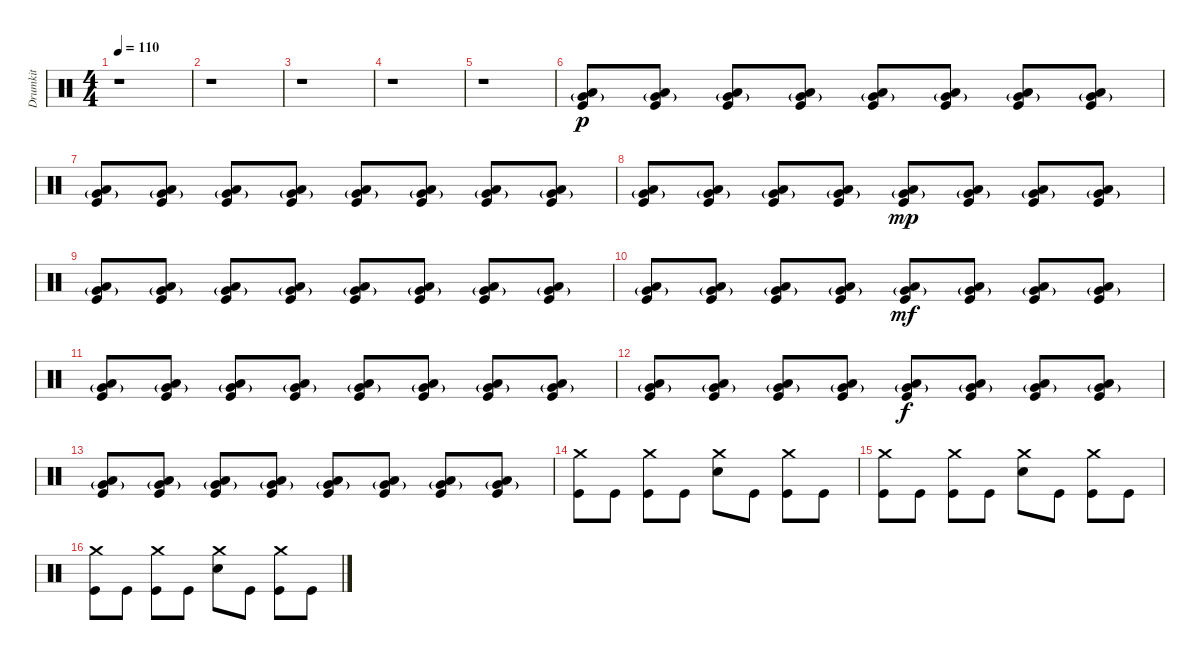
\track ("Drumkit" "Drumkit") {instrument percussion}
\staff {score}
\articulation defaults
\ts (4 4)
\tempo 110
\clef neutral
\ks c
r.1{dy f} |
r.1 |
r.1 |
r.1 |
r.1 |
("Low Floor Tom (hit)" "Very Low Tom (hit)"{g} "Kick (hit)").8{dy p} ("Low Floor Tom (hit)" "Very Low Tom (hit)"{g} "Kick (hit)").8 ("Low Floor Tom (hit)" "Very Low Tom (hit)"{g} "Kick (hit)").8 ("Low Floor Tom (hit)" "Very Low Tom (hit)"{g} "Kick (hit)").8 ("Low Floor Tom (hit)" "Very Low Tom (hit)"{g} "Kick (hit)").8 ("Low Floor Tom (hit)" "Very Low Tom (hit)"{g} "Kick (hit)").8 ("Low Floor Tom (hit)" "Very Low Tom (hit)"{g} "Kick (hit)").8 ("Low Floor Tom (hit)" "Very Low Tom (hit)"{g} "Kick (hit)").8 |
("Low Floor Tom (hit)" "Very Low Tom (hit)"{g} "Kick (hit)").8 ("Low Floor Tom (hit)" "Very Low Tom (hit)"{g} "Kick (hit)").8 ("Low Floor Tom (hit)" "Very Low Tom (hit)"{g} "Kick (hit)").8 ("Low Floor Tom (hit)" "Very Low Tom (hit)"{g} "Kick (hit)").8 ("Low Floor Tom (hit)" "Very Low Tom (hit)"{g} "Kick (hit)").8 ("Low Floor Tom (hit)" "Very Low Tom (hit)"{g} "Kick (hit)").8 ("Low Floor Tom (hit)" "Very Low Tom (hit)"{g} "Kick (hit)").8 ("Low Floor Tom (hit)" "Very Low Tom (hit)"{g} "Kick (hit)").8 |
("Low Floor Tom (hit)" "Very Low Tom (hit)"{g} "Kick (hit)").8 ("Low Floor Tom (hit)" "Very Low Tom (hit)"{g} "Kick (hit)").8 ("Low Floor Tom (hit)" "Very Low Tom (hit)"{g} "Kick (hit)").8 ("Low Floor Tom (hit)" "Very Low Tom (hit)"{g} "Kick (hit)").8 ("Low Floor Tom (hit)" "Very Low Tom (hit)"{g} "Kick (hit)").8{dy mp} ("Low Floor Tom (hit)" "Very Low Tom (hit)"{g} "Kick (hit)").8 ("Low Floor Tom (hit)" "Very Low Tom (hit)"{g} "Kick (hit)").8 ("Low Floor Tom (hit)" "Very Low Tom (hit)"{g} "Kick (hit)").8 |
("Low Floor Tom (hit)" "Very Low Tom (hit)"{g} "Kick (hit)").8 ("Low Floor Tom (hit)" "Very Low Tom (hit)"{g} "Kick (hit)").8 ("Low Floor Tom (hit)" "Very Low Tom (hit)"{g} "Kick (hit)").8 ("Low Floor Tom (hit)" "Very Low Tom (hit)"{g} "Kick (hit)").8 ("Low Floor Tom (hit)" "Very Low Tom (hit)"{g} "Kick (hit)").8 ("Low Floor Tom (hit)" "Very Low Tom (hit)"{g} "Kick (hit)").8 ("Low Floor Tom (hit)" "Very Low Tom (hit)"{g} "Kick (hit)").8 ("Low Floor Tom (hit)" "Very Low Tom (hit)"{g} "Kick (hit)").8 |
("Low Floor Tom (hit)" "Very Low Tom (hit)"{g} "Kick (hit)").8 ("Low Floor Tom (hit)" "Very Low Tom (hit)"{g} "Kick (hit)").8 ("Low Floor Tom (hit)" "Very Low Tom (hit)"{g} "Kick (hit)").8 ("Low Floor Tom (hit)" "Very Low Tom (hit)"{g} "Kick (hit)").8 ("Low Floor Tom (hit)" "Very Low Tom (hit)"{g} "Kick (hit)").8{dy mf} ("Low Floor Tom (hit)" "Very Low Tom (hit)"{g} "Kick (hit)").8 ("Low Floor Tom (hit)" "Very Low Tom (hit)"{g} "Kick (hit)").8 ("Low Floor Tom (hit)" "Very Low Tom (hit)"{g} "Kick (hit)").8 |
("Low Floor Tom (hit)" "Very Low Tom (hit)"{g} "Kick (hit)").8 ("Low Floor Tom (hit)" "Very Low Tom (hit)"{g} "Kick (hit)").8 ("Low Floor Tom (hit)" "Very Low Tom (hit)"{g} "Kick (hit)").8 ("Low Floor Tom (hit)" "Very Low Tom (hit)"{g} "Kick (hit)").8 ("Low Floor Tom (hit)" "Very Low Tom (hit)"{g} "Kick (hit)").8 ("Low Floor Tom (hit)" "Very Low Tom (hit)"{g} "Kick (hit)").8 ("Low Floor Tom (hit)" "Very Low Tom (hit)"{g} "Kick (hit)").8 ("Low Floor Tom (hit)" "Very Low Tom (hit)"{g} "Kick (hit)").8 |
("Low Floor Tom (hit)" "Very Low Tom (hit)"{g} "Kick (hit)").8 ("Low Floor Tom (hit)" "Very Low Tom (hit)"{g} "Kick (hit)").8 ("Low Floor Tom (hit)" "Very Low Tom (hit)"{g} "Kick (hit)").8 ("Low Floor Tom (hit)" "Very Low Tom (hit)"{g} "Kick (hit)").8 ("Low Floor Tom (hit)" "Very Low Tom (hit)"{g} "Kick (hit)").8{dy f} ("Low Floor Tom (hit)" "Very Low Tom (hit)"{g} "Kick (hit)").8 ("Low Floor Tom (hit)" "Very Low Tom (hit)"{g} "Kick (hit)").8 ("Low Floor Tom (hit)" "Very Low Tom (hit)"{g} "Kick (hit)").8 |
("Low Floor Tom (hit)" "Very Low Tom (hit)"{g} "Kick (hit)").8 ("Low Floor Tom (hit)" "Very Low Tom (hit)"{g} "Kick (hit)").8 ("Low Floor Tom (hit)" "Very Low Tom (hit)"{g} "Kick (hit)").8 ("Low Floor Tom (hit)" "Very Low Tom (hit)"{g} "Kick (hit)").8 ("Low Floor Tom (hit)" "Very Low Tom (hit)"{g} "Kick (hit)").8 ("Low Floor Tom (hit)" "Very Low Tom (hit)"{g} "Kick (hit)").8 ("Low Floor Tom (hit)" "Very Low Tom (hit)"{g} "Kick (hit)").8 ("Low Floor Tom (hit)" "Very Low Tom (hit)"{g} "Kick (hit)").8 |
("Crash medium (hit)" "Kick (hit)").8 "Kick (hit)".8 ("Crash medium (hit)" "Kick (hit)").8 "Kick (hit)".8 ("Crash medium (hit)" "Snare (hit) 2").8 "Kick (hit)".8 ("Crash medium (hit)" "Kick (hit)").8 "Kick (hit)".8 |
("Crash medium (hit)" "Kick (hit)").8 "Kick (hit)".8 ("Crash medium (hit)" "Kick (hit)").8 "Kick (hit)".8 ("Crash medium (hit)" "Snare (hit) 2").8 "Kick (hit)".8 ("Crash medium (hit)" "Kick (hit)").8 "Kick (hit)".8 |
("Crash medium (hit)" "Kick (hit)").8 "Kick (hit)".8 ("Crash medium (hit)" "Kick (hit)").8 "Kick (hit)".8 ("Crash medium (hit)" "Snare (hit) 2").8 "Kick (hit)".8 ("Crash medium (hit)" "Kick (hit)").8 "Kick (hit)".8
